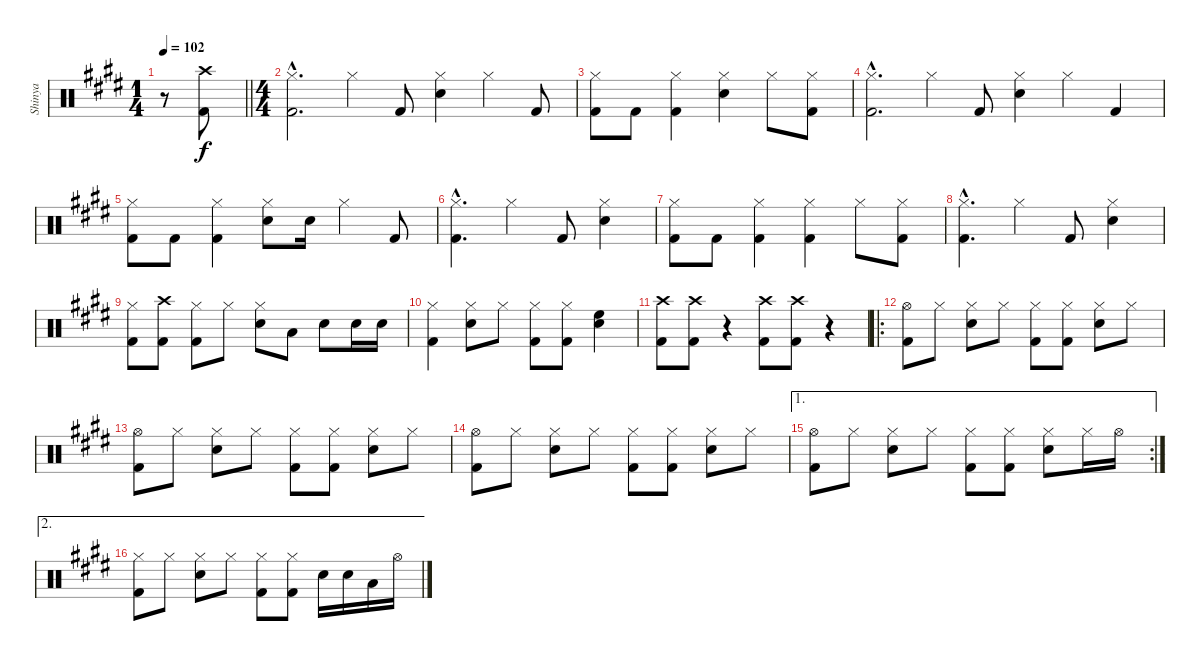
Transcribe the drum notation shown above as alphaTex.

\track ("Shinya" "Shinya") {instrument percussion}
\staff {score}
\articulation defaults
\ts (1 4)
\tempo 102
\clef neutral
\barLineRight lightlight
\ks e
r.8{dy f} ("Crash high (hit)" "Kick (hit) 2").8 |
\ts (4 4)
("Hi-Hat (closed)" "Kick (hit) 2"{hac}).2{d} "Hi-Hat (closed)".4 "Kick (hit) 2".8 ("Hi-Hat (closed)" "Snare (hit) 2").4 "Hi-Hat (closed)".4 "Kick (hit) 2".8 |
("Hi-Hat (closed)" "Kick (hit) 2").8 "Kick (hit) 2".8 ("Hi-Hat (closed)" "Kick (hit) 2").4 ("Hi-Hat (closed)" "Snare (hit) 2").4 "Hi-Hat (closed)".8 ("Hi-Hat (closed)" "Kick (hit) 2").8 |
("Hi-Hat (closed)"{hac} "Kick (hit) 2"{hac}).2{d} "Hi-Hat (closed)".4 "Kick (hit) 2".8 ("Hi-Hat (closed)" "Snare (hit) 2").4 "Hi-Hat (closed)".4 "Kick (hit) 2".4 |
("Hi-Hat (closed)" "Kick (hit) 2").8 "Kick (hit) 2".8 ("Hi-Hat (closed)" "Kick (hit) 2").4 ("Hi-Hat (closed)" "Snare (hit) 2").8 "Snare (hit) 2".16 "Hi-Hat (closed)".4 "Kick (hit) 2".8 |
("Hi-Hat (closed)" "Kick (hit) 2"{hac}).4{d} "Hi-Hat (closed)".4 "Kick (hit) 2".8 ("Hi-Hat (closed)" "Snare (hit) 2").4 |
("Hi-Hat (closed)" "Kick (hit) 2").8 "Kick (hit) 2".8 ("Hi-Hat (closed)" "Kick (hit) 2").4 ("Hi-Hat (closed)" "Kick (hit) 2").4 "Hi-Hat (closed)".8 ("Hi-Hat (closed)" "Kick (hit) 2").8 |
("Hi-Hat (closed)"{hac} "Kick (hit) 2"{hac}).4{d} "Hi-Hat (closed)".4 "Kick (hit) 2".8 ("Hi-Hat (closed)" "Snare (hit) 2").4 |
("Hi-Hat (closed)" "Kick (hit) 2").8 ("Crash high (hit)" "Kick (hit) 2").8 ("Hi-Hat (closed)" "Kick (hit) 2").8 "Hi-Hat (closed)".8 ("Hi-Hat (closed)" "Snare (hit) 2").8 "Low Tom (hit)".8 "Snare (hit) 2".8 "Snare (hit) 2".16 "Snare (hit) 2".16 |
("Hi-Hat (closed)" "Kick (hit) 2").4 ("Hi-Hat (closed)" "Snare (hit) 2").8 "Hi-Hat (closed)".8 ("Hi-Hat (closed)" "Kick (hit) 2").8 ("Hi-Hat (closed)" "Kick (hit) 2").8 ("High Floor Tom (hit)" "Snare (hit) 2").4 |
("Crash high (hit)" "Kick (hit) 2").8 ("Crash high (hit)" "Kick (hit) 2").8 r.4 ("Crash high (hit)" "Kick (hit) 2").8 ("Crash high (hit)" "Kick (hit) 2").8 r.4 |
\ro
("Hi-Hat (open)" "Kick (hit) 2").8 "Hi-Hat (closed)".8 ("Hi-Hat (closed)" "Snare (hit) 2").8 "Hi-Hat (closed)".8 ("Hi-Hat (closed)" "Kick (hit) 2").8 ("Hi-Hat (closed)" "Kick (hit) 2").8 ("Hi-Hat (closed)" "Snare (hit) 2").8 "Hi-Hat (closed)".8 |
("Hi-Hat (open)" "Kick (hit) 2").8 "Hi-Hat (closed)".8 ("Hi-Hat (closed)" "Snare (hit) 2").8 "Hi-Hat (closed)".8 ("Hi-Hat (closed)" "Kick (hit) 2").8 ("Hi-Hat (closed)" "Kick (hit) 2").8 ("Hi-Hat (closed)" "Snare (hit) 2").8 "Hi-Hat (closed)".8 |
("Hi-Hat (open)" "Kick (hit) 2").8 "Hi-Hat (closed)".8 ("Hi-Hat (closed)" "Snare (hit) 2").8 "Hi-Hat (closed)".8 ("Hi-Hat (closed)" "Kick (hit) 2").8 ("Hi-Hat (closed)" "Kick (hit) 2").8 ("Hi-Hat (closed)" "Snare (hit) 2").8 "Hi-Hat (closed)".8 |
\ae 1
\rc 2
("Hi-Hat (open)" "Kick (hit) 2").8 "Hi-Hat (closed)".8 ("Hi-Hat (closed)" "Snare (hit) 2").8 "Hi-Hat (closed)".8 ("Hi-Hat (closed)" "Kick (hit) 2").8 ("Hi-Hat (closed)" "Kick (hit) 2").8 ("Hi-Hat (closed)" "Snare (hit) 2").8 "Hi-Hat (closed)".16 "Hi-Hat (open)".16 |
\ae 2
("Hi-Hat (closed)" "Kick (hit) 2").8 "Hi-Hat (closed)".8 ("Hi-Hat (closed)" "Snare (hit) 2").8 "Hi-Hat (closed)".8 ("Hi-Hat (closed)" "Kick (hit) 2").8 ("Hi-Hat (closed)" "Kick (hit) 2").8 "Snare (hit) 2".16 "Snare (hit) 2".16 "Low Tom (hit)".16 "Hi-Hat (open)".16
